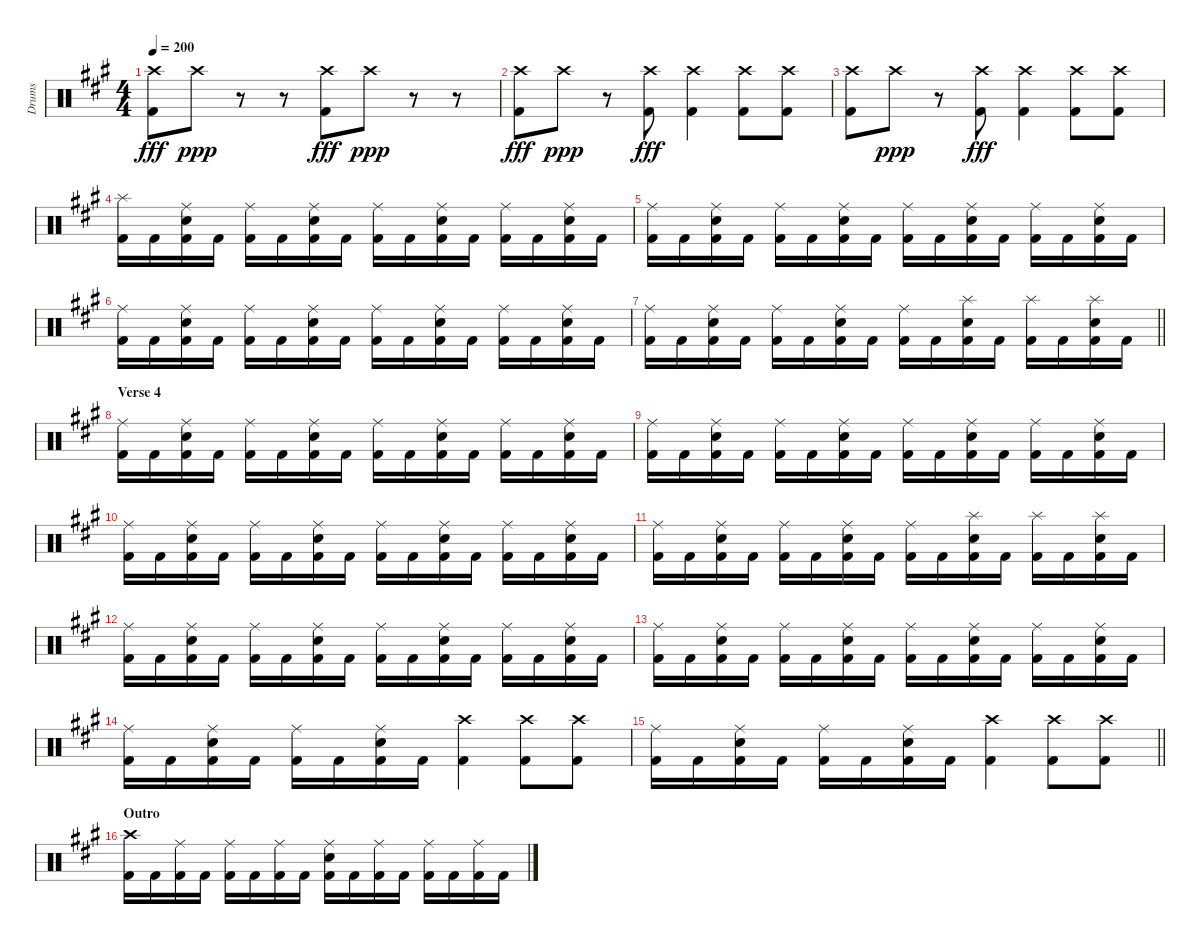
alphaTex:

\track ("Drums" "Drums") {instrument percussion}
\staff {score}
\articulation defaults
\ts (4 4)
\tempo 200
\clef neutral
\ks f#minor
("Crash high (hit)" "Kick (hit) 2").8{dy fff} "Crash high (hit)".8{dy ppp} r.8 r.8 ("Crash high (hit)" "Kick (hit) 2").8{dy fff} "Crash high (hit)".8{dy ppp} r.8 r.8 |
("Crash high (hit)" "Kick (hit) 2").8{dy fff} "Crash high (hit)".8{dy ppp} r.8 ("Crash high (hit)" "Kick (hit) 2").8{dy fff} ("Crash high (hit)" "Kick (hit) 2").4 ("Crash high (hit)" "Kick (hit) 2").8 ("Crash high (hit)" "Kick (hit) 2").8 |
("Crash high (hit)" "Kick (hit) 2").8 "Crash high (hit)".8{dy ppp} r.8 ("Crash high (hit)" "Kick (hit) 2").8{dy fff} ("Crash high (hit)" "Kick (hit) 2").4 ("Crash high (hit)" "Kick (hit) 2").8 ("Crash high (hit)" "Kick (hit) 2").8 |
("Splash (hit)" "Kick (hit) 2").16 "Kick (hit) 2".16 ("Ride (middle)" "Electric Snare (hit)" "Kick (hit) 2").16 "Kick (hit) 2".16 ("Ride (middle)" "Kick (hit) 2").16 "Kick (hit) 2".16 ("Ride (middle)" "Electric Snare (hit)" "Kick (hit) 2").16 "Kick (hit) 2".16 ("Ride (middle)" "Kick (hit) 2").16 "Kick (hit) 2".16 ("Ride (middle)" "Electric Snare (hit)" "Kick (hit) 2").16 "Kick (hit) 2".16 ("Ride (middle)" "Kick (hit) 2").16 "Kick (hit) 2".16 ("Ride (middle)" "Electric Snare (hit)" "Kick (hit) 2").16 "Kick (hit) 2".16 |
("Ride (middle)" "Kick (hit) 2").16 "Kick (hit) 2".16 ("Ride (middle)" "Electric Snare (hit)" "Kick (hit) 2").16 "Kick (hit) 2".16 ("Ride (middle)" "Kick (hit) 2").16 "Kick (hit) 2".16 ("Ride (middle)" "Electric Snare (hit)" "Kick (hit) 2").16 "Kick (hit) 2".16 ("Ride (middle)" "Kick (hit) 2").16 "Kick (hit) 2".16 ("Ride (middle)" "Electric Snare (hit)" "Kick (hit) 2").16 "Kick (hit) 2".16 ("Ride (middle)" "Kick (hit) 2").16 "Kick (hit) 2".16 ("Ride (middle)" "Electric Snare (hit)" "Kick (hit) 2").16 "Kick (hit) 2".16 |
("Ride (middle)" "Kick (hit) 2").16 "Kick (hit) 2".16 ("Ride (middle)" "Electric Snare (hit)" "Kick (hit) 2").16 "Kick (hit) 2".16 ("Ride (middle)" "Kick (hit) 2").16 "Kick (hit) 2".16 ("Ride (middle)" "Electric Snare (hit)" "Kick (hit) 2").16 "Kick (hit) 2".16 ("Ride (middle)" "Kick (hit) 2").16 "Kick (hit) 2".16 ("Ride (middle)" "Electric Snare (hit)" "Kick (hit) 2").16 "Kick (hit) 2".16 ("Ride (middle)" "Kick (hit) 2").16 "Kick (hit) 2".16 ("Ride (middle)" "Electric Snare (hit)" "Kick (hit) 2").16 "Kick (hit) 2".16 |
\barLineRight lightlight
("Ride (middle)" "Kick (hit) 2").16 "Kick (hit) 2".16 ("Ride (middle)" "Electric Snare (hit)" "Kick (hit) 2").16 "Kick (hit) 2".16 ("Ride (middle)" "Kick (hit) 2").16 "Kick (hit) 2".16 ("Ride (middle)" "Electric Snare (hit)" "Kick (hit) 2").16 "Kick (hit) 2".16 ("Ride (middle)" "Kick (hit) 2").16 "Kick (hit) 2".16 ("Splash (hit)" "Electric Snare (hit)" "Kick (hit) 2").16 "Kick (hit) 2".16 ("Splash (hit)" "Kick (hit) 2").16 "Kick (hit) 2".16 ("Splash (hit)" "Electric Snare (hit)" "Kick (hit) 2").16 "Kick (hit) 2".16 |
\section ("" "Verse 4")
("Ride (middle)" "Kick (hit) 2").16 "Kick (hit) 2".16 ("Ride (middle)" "Electric Snare (hit)" "Kick (hit) 2").16 "Kick (hit) 2".16 ("Ride (middle)" "Kick (hit) 2").16 "Kick (hit) 2".16 ("Ride (middle)" "Electric Snare (hit)" "Kick (hit) 2").16 "Kick (hit) 2".16 ("Ride (middle)" "Kick (hit) 2").16 "Kick (hit) 2".16 ("Ride (middle)" "Electric Snare (hit)" "Kick (hit) 2").16 "Kick (hit) 2".16 ("Ride (middle)" "Kick (hit) 2").16 "Kick (hit) 2".16 ("Ride (middle)" "Electric Snare (hit)" "Kick (hit) 2").16 "Kick (hit) 2".16 |
("Ride (middle)" "Kick (hit) 2").16 "Kick (hit) 2".16 ("Ride (middle)" "Electric Snare (hit)" "Kick (hit) 2").16 "Kick (hit) 2".16 ("Ride (middle)" "Kick (hit) 2").16 "Kick (hit) 2".16 ("Ride (middle)" "Electric Snare (hit)" "Kick (hit) 2").16 "Kick (hit) 2".16 ("Ride (middle)" "Kick (hit) 2").16 "Kick (hit) 2".16 ("Ride (middle)" "Electric Snare (hit)" "Kick (hit) 2").16 "Kick (hit) 2".16 ("Ride (middle)" "Kick (hit) 2").16 "Kick (hit) 2".16 ("Ride (middle)" "Electric Snare (hit)" "Kick (hit) 2").16 "Kick (hit) 2".16 |
("Ride (middle)" "Kick (hit) 2").16 "Kick (hit) 2".16 ("Ride (middle)" "Electric Snare (hit)" "Kick (hit) 2").16 "Kick (hit) 2".16 ("Ride (middle)" "Kick (hit) 2").16 "Kick (hit) 2".16 ("Ride (middle)" "Electric Snare (hit)" "Kick (hit) 2").16 "Kick (hit) 2".16 ("Ride (middle)" "Kick (hit) 2").16 "Kick (hit) 2".16 ("Ride (middle)" "Electric Snare (hit)" "Kick (hit) 2").16 "Kick (hit) 2".16 ("Ride (middle)" "Kick (hit) 2").16 "Kick (hit) 2".16 ("Ride (middle)" "Electric Snare (hit)" "Kick (hit) 2").16 "Kick (hit) 2".16 |
("Ride (middle)" "Kick (hit) 2").16 "Kick (hit) 2".16 ("Ride (middle)" "Electric Snare (hit)" "Kick (hit) 2").16 "Kick (hit) 2".16 ("Ride (middle)" "Kick (hit) 2").16 "Kick (hit) 2".16 ("Ride (middle)" "Electric Snare (hit)" "Kick (hit) 2").16 "Kick (hit) 2".16 ("Ride (middle)" "Kick (hit) 2").16 "Kick (hit) 2".16 ("Splash (hit)" "Electric Snare (hit)" "Kick (hit) 2").16 "Kick (hit) 2".16 ("Splash (hit)" "Kick (hit) 2").16 "Kick (hit) 2".16 ("Splash (hit)" "Electric Snare (hit)" "Kick (hit) 2").16 "Kick (hit) 2".16 |
("Ride (middle)" "Kick (hit) 2").16 "Kick (hit) 2".16 ("Ride (middle)" "Electric Snare (hit)" "Kick (hit) 2").16 "Kick (hit) 2".16 ("Ride (middle)" "Kick (hit) 2").16 "Kick (hit) 2".16 ("Ride (middle)" "Electric Snare (hit)" "Kick (hit) 2").16 "Kick (hit) 2".16 ("Ride (middle)" "Kick (hit) 2").16 "Kick (hit) 2".16 ("Ride (middle)" "Electric Snare (hit)" "Kick (hit) 2").16 "Kick (hit) 2".16 ("Ride (middle)" "Kick (hit) 2").16 "Kick (hit) 2".16 ("Ride (middle)" "Electric Snare (hit)" "Kick (hit) 2").16 "Kick (hit) 2".16 |
("Ride (middle)" "Kick (hit) 2").16 "Kick (hit) 2".16 ("Ride (middle)" "Electric Snare (hit)" "Kick (hit) 2").16 "Kick (hit) 2".16 ("Ride (middle)" "Kick (hit) 2").16 "Kick (hit) 2".16 ("Ride (middle)" "Electric Snare (hit)" "Kick (hit) 2").16 "Kick (hit) 2".16 ("Ride (middle)" "Kick (hit) 2").16 "Kick (hit) 2".16 ("Ride (middle)" "Electric Snare (hit)" "Kick (hit) 2").16 "Kick (hit) 2".16 ("Ride (middle)" "Kick (hit) 2").16 "Kick (hit) 2".16 ("Ride (middle)" "Electric Snare (hit)" "Kick (hit) 2").16 "Kick (hit) 2".16 |
("Ride (middle)" "Kick (hit) 2").16 "Kick (hit) 2".16 ("Ride (middle)" "Electric Snare (hit)" "Kick (hit) 2").16 "Kick (hit) 2".16 ("Ride (middle)" "Kick (hit) 2").16 "Kick (hit) 2".16 ("Ride (middle)" "Electric Snare (hit)" "Kick (hit) 2").16 "Kick (hit) 2".16 ("Crash high (hit)" "Kick (hit) 2").4 ("Crash high (hit)" "Kick (hit) 2").8 ("Crash high (hit)" "Kick (hit) 2").8 |
\barLineRight lightlight
("Ride (middle)" "Kick (hit) 2").16 "Kick (hit) 2".16 ("Ride (middle)" "Electric Snare (hit)" "Kick (hit) 2").16 "Kick (hit) 2".16 ("Ride (middle)" "Kick (hit) 2").16 "Kick (hit) 2".16 ("Ride (middle)" "Electric Snare (hit)" "Kick (hit) 2").16 "Kick (hit) 2".16 ("Crash high (hit)" "Kick (hit) 2").4 ("Crash high (hit)" "Kick (hit) 2").8 ("Crash high (hit)" "Kick (hit) 2").8 |
\section ("" "Outro")
("Crash high (hit)" "Kick (hit) 2").16 "Kick (hit) 2".16 ("Ride (middle)" "Kick (hit) 2").16 "Kick (hit) 2".16 ("Ride (middle)" "Kick (hit) 2").16 "Kick (hit) 2".16 ("Ride (middle)" "Kick (hit) 2").16 "Kick (hit) 2".16 ("Ride (middle)" "Electric Snare (hit)" "Kick (hit) 2").16 "Kick (hit) 2".16 ("Ride (middle)" "Kick (hit) 2").16 "Kick (hit) 2".16 ("Ride (middle)" "Kick (hit) 2").16 "Kick (hit) 2".16 ("Ride (middle)" "Kick (hit) 2").16 "Kick (hit) 2".16
